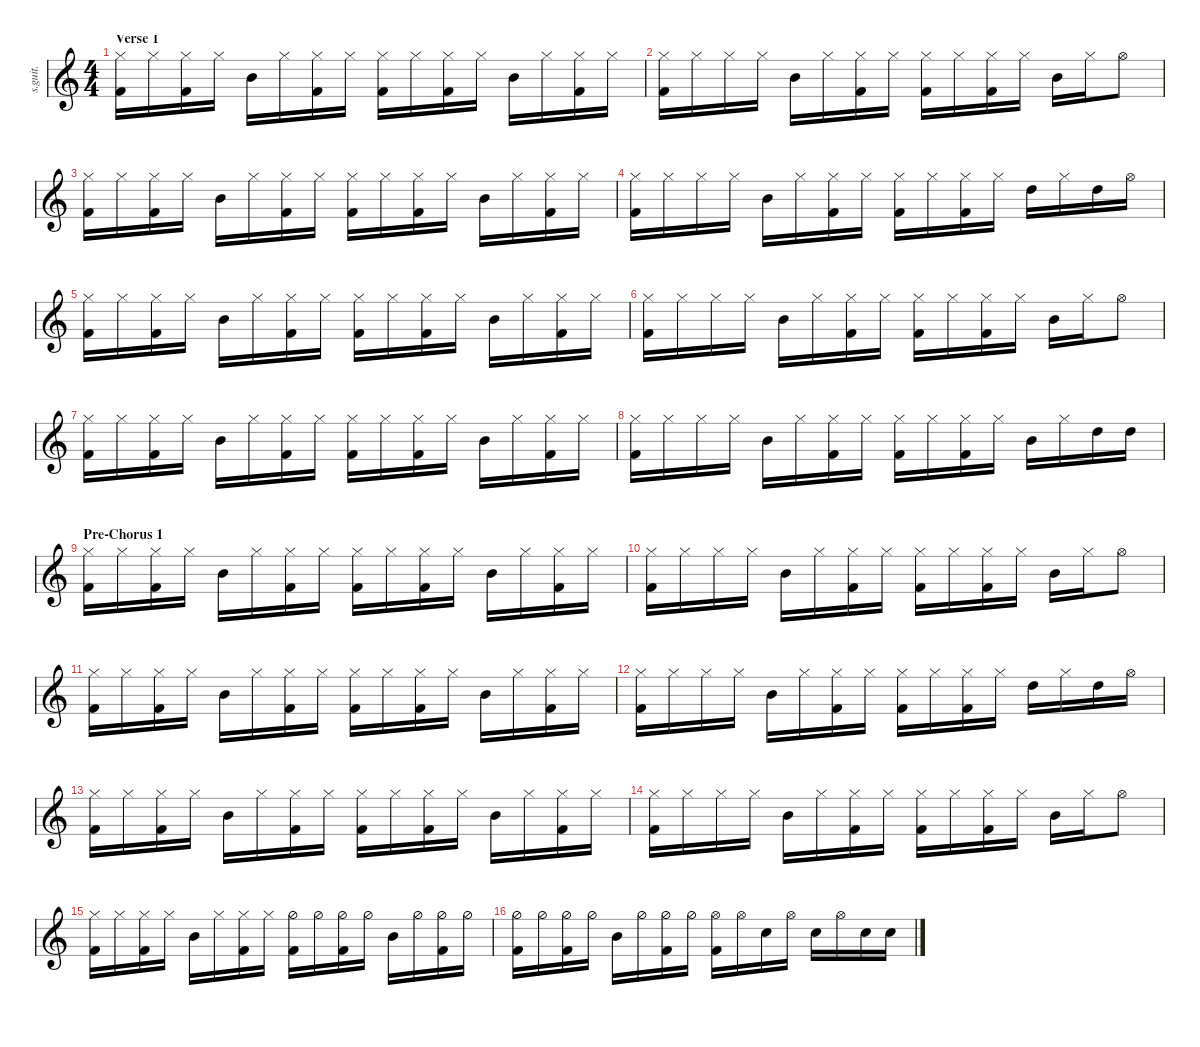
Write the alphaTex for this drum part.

\defaultSystemsLayout 4
\hideDynamics
\bracketExtendMode nobrackets
\track ("Feargal Lawler (Drums)" "s.guit.") {instrument percussion}
\staff {score}
\articulation defaults
\ts (4 4)
\section ("" "Verse 1")
\tempo (82 hide)
\clef g2
\ks c
("Kick (hit) 2" "Hi-Hat (closed)").16{lyrics (0 "") lyrics (1 "") lyrics (2 "") lyrics (3 "") lyrics (4 "") dy ff} "Hi-Hat (closed)".16{lyrics (0 "") lyrics (1 "") lyrics (2 "") lyrics (3 "") lyrics (4 "")} ("Hi-Hat (closed)" "Kick (hit) 2").16{lyrics (0 "") lyrics (1 "") lyrics (2 "") lyrics (3 "") lyrics (4 "")} "Hi-Hat (closed)".16{lyrics (0 "") lyrics (1 "") lyrics (2 "") lyrics (3 "") lyrics (4 "")} "Mid Tom (hit)".16{lyrics (0 "") lyrics (1 "") lyrics (2 "") lyrics (3 "") lyrics (4 "")} "Hi-Hat (closed)".16{lyrics (0 "") lyrics (1 "") lyrics (2 "") lyrics (3 "") lyrics (4 "")} ("Hi-Hat (closed)" "Kick (hit) 2").16{lyrics (0 "") lyrics (1 "") lyrics (2 "") lyrics (3 "") lyrics (4 "")} "Hi-Hat (closed)".16{lyrics (0 "") lyrics (1 "") lyrics (2 "") lyrics (3 "") lyrics (4 "")} ("Hi-Hat (closed)" "Kick (hit) 2").16{lyrics (0 "") lyrics (1 "") lyrics (2 "") lyrics (3 "") lyrics (4 "")} "Hi-Hat (closed)".16{lyrics (0 "") lyrics (1 "") lyrics (2 "") lyrics (3 "") lyrics (4 "")} ("Hi-Hat (closed)" "Kick (hit) 2").16{lyrics (0 "") lyrics (1 "") lyrics (2 "") lyrics (3 "") lyrics (4 "")} "Hi-Hat (closed)".16{lyrics (0 "") lyrics (1 "") lyrics (2 "") lyrics (3 "") lyrics (4 "")} "Mid Tom (hit)".16{lyrics (0 "") lyrics (1 "") lyrics (2 "") lyrics (3 "") lyrics (4 "")} "Hi-Hat (closed)".16{lyrics (0 "") lyrics (1 "") lyrics (2 "") lyrics (3 "") lyrics (4 "")} ("Hi-Hat (closed)" "Kick (hit) 2").16{lyrics (0 "") lyrics (1 "") lyrics (2 "") lyrics (3 "") lyrics (4 "")} "Hi-Hat (closed)".16{lyrics (0 "") lyrics (1 "") lyrics (2 "") lyrics (3 "") lyrics (4 "")} |
("Hi-Hat (closed)" "Kick (hit) 2").16{lyrics (0 "") lyrics (1 "") lyrics (2 "") lyrics (3 "") lyrics (4 "")} "Hi-Hat (closed)".16{lyrics (0 "") lyrics (1 "") lyrics (2 "") lyrics (3 "") lyrics (4 "")} "Hi-Hat (closed)".16{lyrics (0 "") lyrics (1 "") lyrics (2 "") lyrics (3 "") lyrics (4 "")} "Hi-Hat (closed)".16{lyrics (0 "") lyrics (1 "") lyrics (2 "") lyrics (3 "") lyrics (4 "")} "Mid Tom (hit)".16{lyrics (0 "") lyrics (1 "") lyrics (2 "") lyrics (3 "") lyrics (4 "")} "Hi-Hat (closed)".16{lyrics (0 "") lyrics (1 "") lyrics (2 "") lyrics (3 "") lyrics (4 "")} ("Hi-Hat (closed)" "Kick (hit) 2").16{lyrics (0 "") lyrics (1 "") lyrics (2 "") lyrics (3 "") lyrics (4 "")} "Hi-Hat (closed)".16{lyrics (0 "") lyrics (1 "") lyrics (2 "") lyrics (3 "") lyrics (4 "")} ("Hi-Hat (closed)" "Kick (hit) 2").16{lyrics (0 "") lyrics (1 "") lyrics (2 "") lyrics (3 "") lyrics (4 "")} "Hi-Hat (closed)".16{lyrics (0 "") lyrics (1 "") lyrics (2 "") lyrics (3 "") lyrics (4 "")} ("Hi-Hat (closed)" "Kick (hit) 2").16{lyrics (0 "") lyrics (1 "") lyrics (2 "") lyrics (3 "") lyrics (4 "")} "Hi-Hat (closed)".16{lyrics (0 "") lyrics (1 "") lyrics (2 "") lyrics (3 "") lyrics (4 "")} "Mid Tom (hit)".16{lyrics (0 "") lyrics (1 "") lyrics (2 "") lyrics (3 "") lyrics (4 "")} "Hi-Hat (closed)".16{lyrics (0 "") lyrics (1 "") lyrics (2 "") lyrics (3 "") lyrics (4 "")} "Hi-Hat (open)".8{lyrics (0 "") lyrics (1 "") lyrics (2 "") lyrics (3 "") lyrics (4 "")} |
("Hi-Hat (closed)" "Kick (hit) 2").16{lyrics (0 "") lyrics (1 "") lyrics (2 "") lyrics (3 "") lyrics (4 "")} "Hi-Hat (closed)".16{lyrics (0 "") lyrics (1 "") lyrics (2 "") lyrics (3 "") lyrics (4 "")} ("Hi-Hat (closed)" "Kick (hit) 2").16{lyrics (0 "") lyrics (1 "") lyrics (2 "") lyrics (3 "") lyrics (4 "")} "Hi-Hat (closed)".16{lyrics (0 "") lyrics (1 "") lyrics (2 "") lyrics (3 "") lyrics (4 "")} "Mid Tom (hit)".16{lyrics (0 "") lyrics (1 "") lyrics (2 "") lyrics (3 "") lyrics (4 "")} "Hi-Hat (closed)".16{lyrics (0 "") lyrics (1 "") lyrics (2 "") lyrics (3 "") lyrics (4 "")} ("Hi-Hat (closed)" "Kick (hit) 2").16{lyrics (0 "") lyrics (1 "") lyrics (2 "") lyrics (3 "") lyrics (4 "")} "Hi-Hat (closed)".16{lyrics (0 "") lyrics (1 "") lyrics (2 "") lyrics (3 "") lyrics (4 "")} ("Hi-Hat (closed)" "Kick (hit) 2").16{lyrics (0 "") lyrics (1 "") lyrics (2 "") lyrics (3 "") lyrics (4 "")} "Hi-Hat (closed)".16{lyrics (0 "") lyrics (1 "") lyrics (2 "") lyrics (3 "") lyrics (4 "")} ("Hi-Hat (closed)" "Kick (hit) 2").16{lyrics (0 "") lyrics (1 "") lyrics (2 "") lyrics (3 "") lyrics (4 "")} "Hi-Hat (closed)".16{lyrics (0 "") lyrics (1 "") lyrics (2 "") lyrics (3 "") lyrics (4 "")} "Mid Tom (hit)".16{lyrics (0 "") lyrics (1 "") lyrics (2 "") lyrics (3 "") lyrics (4 "")} "Hi-Hat (closed)".16{lyrics (0 "") lyrics (1 "") lyrics (2 "") lyrics (3 "") lyrics (4 "")} ("Hi-Hat (closed)" "Kick (hit) 2").16{lyrics (0 "") lyrics (1 "") lyrics (2 "") lyrics (3 "") lyrics (4 "")} "Hi-Hat (closed)".16{lyrics (0 "") lyrics (1 "") lyrics (2 "") lyrics (3 "") lyrics (4 "")} |
("Hi-Hat (closed)" "Kick (hit) 2").16{lyrics (0 "") lyrics (1 "") lyrics (2 "") lyrics (3 "") lyrics (4 "")} "Hi-Hat (closed)".16{lyrics (0 "") lyrics (1 "") lyrics (2 "") lyrics (3 "") lyrics (4 "")} "Hi-Hat (closed)".16{lyrics (0 "") lyrics (1 "") lyrics (2 "") lyrics (3 "") lyrics (4 "")} "Hi-Hat (closed)".16{lyrics (0 "") lyrics (1 "") lyrics (2 "") lyrics (3 "") lyrics (4 "")} "Mid Tom (hit)".16{lyrics (0 "") lyrics (1 "") lyrics (2 "") lyrics (3 "") lyrics (4 "")} "Hi-Hat (closed)".16{lyrics (0 "") lyrics (1 "") lyrics (2 "") lyrics (3 "") lyrics (4 "")} ("Hi-Hat (closed)" "Kick (hit) 2").16{lyrics (0 "") lyrics (1 "") lyrics (2 "") lyrics (3 "") lyrics (4 "")} "Hi-Hat (closed)".16{lyrics (0 "") lyrics (1 "") lyrics (2 "") lyrics (3 "") lyrics (4 "")} ("Hi-Hat (closed)" "Kick (hit) 2").16{lyrics (0 "") lyrics (1 "") lyrics (2 "") lyrics (3 "") lyrics (4 "")} "Hi-Hat (closed)".16{lyrics (0 "") lyrics (1 "") lyrics (2 "") lyrics (3 "") lyrics (4 "")} ("Hi-Hat (closed)" "Kick (hit) 2").16{lyrics (0 "") lyrics (1 "") lyrics (2 "") lyrics (3 "") lyrics (4 "")} "Hi-Hat (closed)".16{lyrics (0 "") lyrics (1 "") lyrics (2 "") lyrics (3 "") lyrics (4 "")} "High Tom (hit)".16{lyrics (0 "") lyrics (1 "") lyrics (2 "") lyrics (3 "") lyrics (4 "")} "Hi-Hat (closed)".16{lyrics (0 "") lyrics (1 "") lyrics (2 "") lyrics (3 "") lyrics (4 "")} "High Tom (hit)".16{lyrics (0 "") lyrics (1 "") lyrics (2 "") lyrics (3 "") lyrics (4 "")} "Hi-Hat (open)".16{lyrics (0 "") lyrics (1 "") lyrics (2 "") lyrics (3 "") lyrics (4 "")} |
("Kick (hit) 2" "Hi-Hat (closed)").16{lyrics (0 "") lyrics (1 "") lyrics (2 "") lyrics (3 "") lyrics (4 "")} "Hi-Hat (closed)".16{lyrics (0 "") lyrics (1 "") lyrics (2 "") lyrics (3 "") lyrics (4 "")} ("Hi-Hat (closed)" "Kick (hit) 2").16{lyrics (0 "") lyrics (1 "") lyrics (2 "") lyrics (3 "") lyrics (4 "")} "Hi-Hat (closed)".16{lyrics (0 "") lyrics (1 "") lyrics (2 "") lyrics (3 "") lyrics (4 "")} "Mid Tom (hit)".16{lyrics (0 "") lyrics (1 "") lyrics (2 "") lyrics (3 "") lyrics (4 "")} "Hi-Hat (closed)".16{lyrics (0 "") lyrics (1 "") lyrics (2 "") lyrics (3 "") lyrics (4 "")} ("Hi-Hat (closed)" "Kick (hit) 2").16{lyrics (0 "") lyrics (1 "") lyrics (2 "") lyrics (3 "") lyrics (4 "")} "Hi-Hat (closed)".16{lyrics (0 "") lyrics (1 "") lyrics (2 "") lyrics (3 "") lyrics (4 "")} ("Hi-Hat (closed)" "Kick (hit) 2").16{lyrics (0 "") lyrics (1 "") lyrics (2 "") lyrics (3 "") lyrics (4 "")} "Hi-Hat (closed)".16{lyrics (0 "") lyrics (1 "") lyrics (2 "") lyrics (3 "") lyrics (4 "")} ("Hi-Hat (closed)" "Kick (hit) 2").16{lyrics (0 "") lyrics (1 "") lyrics (2 "") lyrics (3 "") lyrics (4 "")} "Hi-Hat (closed)".16{lyrics (0 "") lyrics (1 "") lyrics (2 "") lyrics (3 "") lyrics (4 "")} "Mid Tom (hit)".16{lyrics (0 "") lyrics (1 "") lyrics (2 "") lyrics (3 "") lyrics (4 "")} "Hi-Hat (closed)".16{lyrics (0 "") lyrics (1 "") lyrics (2 "") lyrics (3 "") lyrics (4 "")} ("Hi-Hat (closed)" "Kick (hit) 2").16{lyrics (0 "") lyrics (1 "") lyrics (2 "") lyrics (3 "") lyrics (4 "")} "Hi-Hat (closed)".16{lyrics (0 "") lyrics (1 "") lyrics (2 "") lyrics (3 "") lyrics (4 "")} |
("Hi-Hat (closed)" "Kick (hit) 2").16{lyrics (0 "") lyrics (1 "") lyrics (2 "") lyrics (3 "") lyrics (4 "")} "Hi-Hat (closed)".16{lyrics (0 "") lyrics (1 "") lyrics (2 "") lyrics (3 "") lyrics (4 "")} "Hi-Hat (closed)".16{lyrics (0 "") lyrics (1 "") lyrics (2 "") lyrics (3 "") lyrics (4 "")} "Hi-Hat (closed)".16{lyrics (0 "") lyrics (1 "") lyrics (2 "") lyrics (3 "") lyrics (4 "")} "Mid Tom (hit)".16{lyrics (0 "") lyrics (1 "") lyrics (2 "") lyrics (3 "") lyrics (4 "")} "Hi-Hat (closed)".16{lyrics (0 "") lyrics (1 "") lyrics (2 "") lyrics (3 "") lyrics (4 "")} ("Hi-Hat (closed)" "Kick (hit) 2").16{lyrics (0 "") lyrics (1 "") lyrics (2 "") lyrics (3 "") lyrics (4 "")} "Hi-Hat (closed)".16{lyrics (0 "") lyrics (1 "") lyrics (2 "") lyrics (3 "") lyrics (4 "")} ("Hi-Hat (closed)" "Kick (hit) 2").16{lyrics (0 "") lyrics (1 "") lyrics (2 "") lyrics (3 "") lyrics (4 "")} "Hi-Hat (closed)".16{lyrics (0 "") lyrics (1 "") lyrics (2 "") lyrics (3 "") lyrics (4 "")} ("Hi-Hat (closed)" "Kick (hit) 2").16{lyrics (0 "") lyrics (1 "") lyrics (2 "") lyrics (3 "") lyrics (4 "")} "Hi-Hat (closed)".16{lyrics (0 "") lyrics (1 "") lyrics (2 "") lyrics (3 "") lyrics (4 "")} "Mid Tom (hit)".16{lyrics (0 "") lyrics (1 "") lyrics (2 "") lyrics (3 "") lyrics (4 "")} "Hi-Hat (closed)".16{lyrics (0 "") lyrics (1 "") lyrics (2 "") lyrics (3 "") lyrics (4 "")} "Hi-Hat (open)".8{lyrics (0 "") lyrics (1 "") lyrics (2 "") lyrics (3 "") lyrics (4 "")} |
("Hi-Hat (closed)" "Kick (hit) 2").16{lyrics (0 "") lyrics (1 "") lyrics (2 "") lyrics (3 "") lyrics (4 "")} "Hi-Hat (closed)".16{lyrics (0 "") lyrics (1 "") lyrics (2 "") lyrics (3 "") lyrics (4 "")} ("Hi-Hat (closed)" "Kick (hit) 2").16{lyrics (0 "") lyrics (1 "") lyrics (2 "") lyrics (3 "") lyrics (4 "")} "Hi-Hat (closed)".16{lyrics (0 "") lyrics (1 "") lyrics (2 "") lyrics (3 "") lyrics (4 "")} "Mid Tom (hit)".16{lyrics (0 "") lyrics (1 "") lyrics (2 "") lyrics (3 "") lyrics (4 "")} "Hi-Hat (closed)".16{lyrics (0 "") lyrics (1 "") lyrics (2 "") lyrics (3 "") lyrics (4 "")} ("Hi-Hat (closed)" "Kick (hit) 2").16{lyrics (0 "") lyrics (1 "") lyrics (2 "") lyrics (3 "") lyrics (4 "")} "Hi-Hat (closed)".16{lyrics (0 "") lyrics (1 "") lyrics (2 "") lyrics (3 "") lyrics (4 "")} ("Hi-Hat (closed)" "Kick (hit) 2").16{lyrics (0 "") lyrics (1 "") lyrics (2 "") lyrics (3 "") lyrics (4 "")} "Hi-Hat (closed)".16{lyrics (0 "") lyrics (1 "") lyrics (2 "") lyrics (3 "") lyrics (4 "")} ("Hi-Hat (closed)" "Kick (hit) 2").16{lyrics (0 "") lyrics (1 "") lyrics (2 "") lyrics (3 "") lyrics (4 "")} "Hi-Hat (closed)".16{lyrics (0 "") lyrics (1 "") lyrics (2 "") lyrics (3 "") lyrics (4 "")} "Mid Tom (hit)".16{lyrics (0 "") lyrics (1 "") lyrics (2 "") lyrics (3 "") lyrics (4 "")} "Hi-Hat (closed)".16{lyrics (0 "") lyrics (1 "") lyrics (2 "") lyrics (3 "") lyrics (4 "")} ("Hi-Hat (closed)" "Kick (hit) 2").16{lyrics (0 "") lyrics (1 "") lyrics (2 "") lyrics (3 "") lyrics (4 "")} "Hi-Hat (closed)".16{lyrics (0 "") lyrics (1 "") lyrics (2 "") lyrics (3 "") lyrics (4 "")} |
("Hi-Hat (closed)" "Kick (hit) 2").16{lyrics (0 "") lyrics (1 "") lyrics (2 "") lyrics (3 "") lyrics (4 "")} "Hi-Hat (closed)".16{lyrics (0 "") lyrics (1 "") lyrics (2 "") lyrics (3 "") lyrics (4 "")} "Hi-Hat (closed)".16{lyrics (0 "") lyrics (1 "") lyrics (2 "") lyrics (3 "") lyrics (4 "")} "Hi-Hat (closed)".16{lyrics (0 "") lyrics (1 "") lyrics (2 "") lyrics (3 "") lyrics (4 "")} "Mid Tom (hit)".16{lyrics (0 "") lyrics (1 "") lyrics (2 "") lyrics (3 "") lyrics (4 "")} "Hi-Hat (closed)".16{lyrics (0 "") lyrics (1 "") lyrics (2 "") lyrics (3 "") lyrics (4 "")} ("Hi-Hat (closed)" "Kick (hit) 2").16{lyrics (0 "") lyrics (1 "") lyrics (2 "") lyrics (3 "") lyrics (4 "")} "Hi-Hat (closed)".16{lyrics (0 "") lyrics (1 "") lyrics (2 "") lyrics (3 "") lyrics (4 "")} ("Hi-Hat (closed)" "Kick (hit) 2").16{lyrics (0 "") lyrics (1 "") lyrics (2 "") lyrics (3 "") lyrics (4 "")} "Hi-Hat (closed)".16{lyrics (0 "") lyrics (1 "") lyrics (2 "") lyrics (3 "") lyrics (4 "")} ("Hi-Hat (closed)" "Kick (hit) 2").16{lyrics (0 "") lyrics (1 "") lyrics (2 "") lyrics (3 "") lyrics (4 "")} "Hi-Hat (closed)".16{lyrics (0 "") lyrics (1 "") lyrics (2 "") lyrics (3 "") lyrics (4 "")} "Mid Tom (hit)".16{lyrics (0 "") lyrics (1 "") lyrics (2 "") lyrics (3 "") lyrics (4 "")} "Hi-Hat (closed)".16{lyrics (0 "") lyrics (1 "") lyrics (2 "") lyrics (3 "") lyrics (4 "")} "High Tom (hit)".16{lyrics (0 "") lyrics (1 "") lyrics (2 "") lyrics (3 "") lyrics (4 "")} "High Tom (hit)".16{lyrics (0 "") lyrics (1 "") lyrics (2 "") lyrics (3 "") lyrics (4 "")} |
\section ("" "Pre-Chorus 1")
("Kick (hit) 2" "Hi-Hat (closed)").16{lyrics (0 "") lyrics (1 "") lyrics (2 "") lyrics (3 "") lyrics (4 "")} "Hi-Hat (closed)".16{lyrics (0 "") lyrics (1 "") lyrics (2 "") lyrics (3 "") lyrics (4 "")} ("Hi-Hat (closed)" "Kick (hit) 2").16{lyrics (0 "") lyrics (1 "") lyrics (2 "") lyrics (3 "") lyrics (4 "")} "Hi-Hat (closed)".16{lyrics (0 "") lyrics (1 "") lyrics (2 "") lyrics (3 "") lyrics (4 "")} "Mid Tom (hit)".16{lyrics (0 "") lyrics (1 "") lyrics (2 "") lyrics (3 "") lyrics (4 "")} "Hi-Hat (closed)".16{lyrics (0 "") lyrics (1 "") lyrics (2 "") lyrics (3 "") lyrics (4 "")} ("Kick (hit) 2" "Hi-Hat (closed)").16{lyrics (0 "") lyrics (1 "") lyrics (2 "") lyrics (3 "") lyrics (4 "")} "Hi-Hat (closed)".16{lyrics (0 "") lyrics (1 "") lyrics (2 "") lyrics (3 "") lyrics (4 "")} ("Kick (hit) 2" "Hi-Hat (closed)").16{lyrics (0 "") lyrics (1 "") lyrics (2 "") lyrics (3 "") lyrics (4 "")} "Hi-Hat (closed)".16{lyrics (0 "") lyrics (1 "") lyrics (2 "") lyrics (3 "") lyrics (4 "")} ("Kick (hit) 2" "Hi-Hat (closed)").16{lyrics (0 "") lyrics (1 "") lyrics (2 "") lyrics (3 "") lyrics (4 "")} "Hi-Hat (closed)".16{lyrics (0 "") lyrics (1 "") lyrics (2 "") lyrics (3 "") lyrics (4 "")} "Mid Tom (hit)".16{lyrics (0 "") lyrics (1 "") lyrics (2 "") lyrics (3 "") lyrics (4 "")} "Hi-Hat (closed)".16{lyrics (0 "") lyrics (1 "") lyrics (2 "") lyrics (3 "") lyrics (4 "")} ("Hi-Hat (closed)" "Kick (hit) 2").16{lyrics (0 "") lyrics (1 "") lyrics (2 "") lyrics (3 "") lyrics (4 "")} "Hi-Hat (closed)".16{lyrics (0 "") lyrics (1 "") lyrics (2 "") lyrics (3 "") lyrics (4 "")} |
("Hi-Hat (closed)" "Kick (hit) 2").16{lyrics (0 "") lyrics (1 "") lyrics (2 "") lyrics (3 "") lyrics (4 "")} "Hi-Hat (closed)".16{lyrics (0 "") lyrics (1 "") lyrics (2 "") lyrics (3 "") lyrics (4 "")} "Hi-Hat (closed)".16{lyrics (0 "") lyrics (1 "") lyrics (2 "") lyrics (3 "") lyrics (4 "")} "Hi-Hat (closed)".16{lyrics (0 "") lyrics (1 "") lyrics (2 "") lyrics (3 "") lyrics (4 "")} "Mid Tom (hit)".16{lyrics (0 "") lyrics (1 "") lyrics (2 "") lyrics (3 "") lyrics (4 "")} "Hi-Hat (closed)".16{lyrics (0 "") lyrics (1 "") lyrics (2 "") lyrics (3 "") lyrics (4 "")} ("Kick (hit) 2" "Hi-Hat (closed)").16{lyrics (0 "") lyrics (1 "") lyrics (2 "") lyrics (3 "") lyrics (4 "")} "Hi-Hat (closed)".16{lyrics (0 "") lyrics (1 "") lyrics (2 "") lyrics (3 "") lyrics (4 "")} ("Kick (hit) 2" "Hi-Hat (closed)").16{lyrics (0 "") lyrics (1 "") lyrics (2 "") lyrics (3 "") lyrics (4 "")} "Hi-Hat (closed)".16{lyrics (0 "") lyrics (1 "") lyrics (2 "") lyrics (3 "") lyrics (4 "")} ("Kick (hit) 2" "Hi-Hat (closed)").16{lyrics (0 "") lyrics (1 "") lyrics (2 "") lyrics (3 "") lyrics (4 "")} "Hi-Hat (closed)".16{lyrics (0 "") lyrics (1 "") lyrics (2 "") lyrics (3 "") lyrics (4 "")} "Mid Tom (hit)".16{lyrics (0 "") lyrics (1 "") lyrics (2 "") lyrics (3 "") lyrics (4 "")} "Hi-Hat (closed)".16{lyrics (0 "") lyrics (1 "") lyrics (2 "") lyrics (3 "") lyrics (4 "")} "Hi-Hat (open)".8{lyrics (0 "") lyrics (1 "") lyrics (2 "") lyrics (3 "") lyrics (4 "")} |
("Hi-Hat (closed)" "Kick (hit) 2").16{lyrics (0 "") lyrics (1 "") lyrics (2 "") lyrics (3 "") lyrics (4 "")} "Hi-Hat (closed)".16{lyrics (0 "") lyrics (1 "") lyrics (2 "") lyrics (3 "") lyrics (4 "")} ("Hi-Hat (closed)" "Kick (hit) 2").16{lyrics (0 "") lyrics (1 "") lyrics (2 "") lyrics (3 "") lyrics (4 "")} "Hi-Hat (closed)".16{lyrics (0 "") lyrics (1 "") lyrics (2 "") lyrics (3 "") lyrics (4 "")} "Mid Tom (hit)".16{lyrics (0 "") lyrics (1 "") lyrics (2 "") lyrics (3 "") lyrics (4 "")} "Hi-Hat (closed)".16{lyrics (0 "") lyrics (1 "") lyrics (2 "") lyrics (3 "") lyrics (4 "")} ("Kick (hit) 2" "Hi-Hat (closed)").16{lyrics (0 "") lyrics (1 "") lyrics (2 "") lyrics (3 "") lyrics (4 "")} "Hi-Hat (closed)".16{lyrics (0 "") lyrics (1 "") lyrics (2 "") lyrics (3 "") lyrics (4 "")} ("Kick (hit) 2" "Hi-Hat (closed)").16{lyrics (0 "") lyrics (1 "") lyrics (2 "") lyrics (3 "") lyrics (4 "")} "Hi-Hat (closed)".16{lyrics (0 "") lyrics (1 "") lyrics (2 "") lyrics (3 "") lyrics (4 "")} ("Kick (hit) 2" "Hi-Hat (closed)").16{lyrics (0 "") lyrics (1 "") lyrics (2 "") lyrics (3 "") lyrics (4 "")} "Hi-Hat (closed)".16{lyrics (0 "") lyrics (1 "") lyrics (2 "") lyrics (3 "") lyrics (4 "")} "Mid Tom (hit)".16{lyrics (0 "") lyrics (1 "") lyrics (2 "") lyrics (3 "") lyrics (4 "")} "Hi-Hat (closed)".16{lyrics (0 "") lyrics (1 "") lyrics (2 "") lyrics (3 "") lyrics (4 "")} ("Hi-Hat (closed)" "Kick (hit) 2").16{lyrics (0 "") lyrics (1 "") lyrics (2 "") lyrics (3 "") lyrics (4 "")} "Hi-Hat (closed)".16{lyrics (0 "") lyrics (1 "") lyrics (2 "") lyrics (3 "") lyrics (4 "")} |
("Hi-Hat (closed)" "Kick (hit) 2").16{lyrics (0 "") lyrics (1 "") lyrics (2 "") lyrics (3 "") lyrics (4 "")} "Hi-Hat (closed)".16{lyrics (0 "") lyrics (1 "") lyrics (2 "") lyrics (3 "") lyrics (4 "")} "Hi-Hat (closed)".16{lyrics (0 "") lyrics (1 "") lyrics (2 "") lyrics (3 "") lyrics (4 "")} "Hi-Hat (closed)".16{lyrics (0 "") lyrics (1 "") lyrics (2 "") lyrics (3 "") lyrics (4 "")} "Mid Tom (hit)".16{lyrics (0 "") lyrics (1 "") lyrics (2 "") lyrics (3 "") lyrics (4 "")} "Hi-Hat (closed)".16{lyrics (0 "") lyrics (1 "") lyrics (2 "") lyrics (3 "") lyrics (4 "")} ("Kick (hit) 2" "Hi-Hat (closed)").16{lyrics (0 "") lyrics (1 "") lyrics (2 "") lyrics (3 "") lyrics (4 "")} "Hi-Hat (closed)".16{lyrics (0 "") lyrics (1 "") lyrics (2 "") lyrics (3 "") lyrics (4 "")} ("Kick (hit) 2" "Hi-Hat (closed)").16{lyrics (0 "") lyrics (1 "") lyrics (2 "") lyrics (3 "") lyrics (4 "")} "Hi-Hat (closed)".16{lyrics (0 "") lyrics (1 "") lyrics (2 "") lyrics (3 "") lyrics (4 "")} ("Kick (hit) 2" "Hi-Hat (closed)").16{lyrics (0 "") lyrics (1 "") lyrics (2 "") lyrics (3 "") lyrics (4 "")} "Hi-Hat (closed)".16{lyrics (0 "") lyrics (1 "") lyrics (2 "") lyrics (3 "") lyrics (4 "")} "High Tom (hit)".16{lyrics (0 "") lyrics (1 "") lyrics (2 "") lyrics (3 "") lyrics (4 "")} "Hi-Hat (closed)".16{lyrics (0 "") lyrics (1 "") lyrics (2 "") lyrics (3 "") lyrics (4 "")} "High Tom (hit)".16{lyrics (0 "") lyrics (1 "") lyrics (2 "") lyrics (3 "") lyrics (4 "")} "Hi-Hat (open)".16{lyrics (0 "") lyrics (1 "") lyrics (2 "") lyrics (3 "") lyrics (4 "")} |
("Kick (hit) 2" "Hi-Hat (closed)").16{lyrics (0 "") lyrics (1 "") lyrics (2 "") lyrics (3 "") lyrics (4 "")} "Hi-Hat (closed)".16{lyrics (0 "") lyrics (1 "") lyrics (2 "") lyrics (3 "") lyrics (4 "")} ("Hi-Hat (closed)" "Kick (hit) 2").16{lyrics (0 "") lyrics (1 "") lyrics (2 "") lyrics (3 "") lyrics (4 "")} "Hi-Hat (closed)".16{lyrics (0 "") lyrics (1 "") lyrics (2 "") lyrics (3 "") lyrics (4 "")} "Mid Tom (hit)".16{lyrics (0 "") lyrics (1 "") lyrics (2 "") lyrics (3 "") lyrics (4 "")} "Hi-Hat (closed)".16{lyrics (0 "") lyrics (1 "") lyrics (2 "") lyrics (3 "") lyrics (4 "")} ("Kick (hit) 2" "Hi-Hat (closed)").16{lyrics (0 "") lyrics (1 "") lyrics (2 "") lyrics (3 "") lyrics (4 "")} "Hi-Hat (closed)".16{lyrics (0 "") lyrics (1 "") lyrics (2 "") lyrics (3 "") lyrics (4 "")} ("Kick (hit) 2" "Hi-Hat (closed)").16{lyrics (0 "") lyrics (1 "") lyrics (2 "") lyrics (3 "") lyrics (4 "")} "Hi-Hat (closed)".16{lyrics (0 "") lyrics (1 "") lyrics (2 "") lyrics (3 "") lyrics (4 "")} ("Kick (hit) 2" "Hi-Hat (closed)").16{lyrics (0 "") lyrics (1 "") lyrics (2 "") lyrics (3 "") lyrics (4 "")} "Hi-Hat (closed)".16{lyrics (0 "") lyrics (1 "") lyrics (2 "") lyrics (3 "") lyrics (4 "")} "Mid Tom (hit)".16{lyrics (0 "") lyrics (1 "") lyrics (2 "") lyrics (3 "") lyrics (4 "")} "Hi-Hat (closed)".16{lyrics (0 "") lyrics (1 "") lyrics (2 "") lyrics (3 "") lyrics (4 "")} ("Hi-Hat (closed)" "Kick (hit) 2").16{lyrics (0 "") lyrics (1 "") lyrics (2 "") lyrics (3 "") lyrics (4 "")} "Hi-Hat (closed)".16{lyrics (0 "") lyrics (1 "") lyrics (2 "") lyrics (3 "") lyrics (4 "")} |
("Hi-Hat (closed)" "Kick (hit) 2").16{lyrics (0 "") lyrics (1 "") lyrics (2 "") lyrics (3 "") lyrics (4 "")} "Hi-Hat (closed)".16{lyrics (0 "") lyrics (1 "") lyrics (2 "") lyrics (3 "") lyrics (4 "")} "Hi-Hat (closed)".16{lyrics (0 "") lyrics (1 "") lyrics (2 "") lyrics (3 "") lyrics (4 "")} "Hi-Hat (closed)".16{lyrics (0 "") lyrics (1 "") lyrics (2 "") lyrics (3 "") lyrics (4 "")} "Mid Tom (hit)".16{lyrics (0 "") lyrics (1 "") lyrics (2 "") lyrics (3 "") lyrics (4 "")} "Hi-Hat (closed)".16{lyrics (0 "") lyrics (1 "") lyrics (2 "") lyrics (3 "") lyrics (4 "")} ("Kick (hit) 2" "Hi-Hat (closed)").16{lyrics (0 "") lyrics (1 "") lyrics (2 "") lyrics (3 "") lyrics (4 "")} "Hi-Hat (closed)".16{lyrics (0 "") lyrics (1 "") lyrics (2 "") lyrics (3 "") lyrics (4 "")} ("Kick (hit) 2" "Hi-Hat (closed)").16{lyrics (0 "") lyrics (1 "") lyrics (2 "") lyrics (3 "") lyrics (4 "")} "Hi-Hat (closed)".16{lyrics (0 "") lyrics (1 "") lyrics (2 "") lyrics (3 "") lyrics (4 "")} ("Kick (hit) 2" "Hi-Hat (closed)").16{lyrics (0 "") lyrics (1 "") lyrics (2 "") lyrics (3 "") lyrics (4 "")} "Hi-Hat (closed)".16{lyrics (0 "") lyrics (1 "") lyrics (2 "") lyrics (3 "") lyrics (4 "")} "Mid Tom (hit)".16{lyrics (0 "") lyrics (1 "") lyrics (2 "") lyrics (3 "") lyrics (4 "")} "Hi-Hat (closed)".16{lyrics (0 "") lyrics (1 "") lyrics (2 "") lyrics (3 "") lyrics (4 "")} "Hi-Hat (open)".8{lyrics (0 "") lyrics (1 "") lyrics (2 "") lyrics (3 "") lyrics (4 "")} |
("Hi-Hat (closed)" "Kick (hit) 2").16{lyrics (0 "") lyrics (1 "") lyrics (2 "") lyrics (3 "") lyrics (4 "")} "Hi-Hat (closed)".16{lyrics (0 "") lyrics (1 "") lyrics (2 "") lyrics (3 "") lyrics (4 "")} ("Hi-Hat (closed)" "Kick (hit) 2").16{lyrics (0 "") lyrics (1 "") lyrics (2 "") lyrics (3 "") lyrics (4 "")} "Hi-Hat (closed)".16{lyrics (0 "") lyrics (1 "") lyrics (2 "") lyrics (3 "") lyrics (4 "")} "Mid Tom (hit)".16{lyrics (0 "") lyrics (1 "") lyrics (2 "") lyrics (3 "") lyrics (4 "")} "Hi-Hat (closed)".16{lyrics (0 "") lyrics (1 "") lyrics (2 "") lyrics (3 "") lyrics (4 "")} ("Hi-Hat (closed)" "Kick (hit) 2").16{lyrics (0 "") lyrics (1 "") lyrics (2 "") lyrics (3 "") lyrics (4 "")} "Hi-Hat (closed)".16{lyrics (0 "") lyrics (1 "") lyrics (2 "") lyrics (3 "") lyrics (4 "")} ("Hi-Hat (half)" "Kick (hit) 2").16{lyrics (0 "") lyrics (1 "") lyrics (2 "") lyrics (3 "") lyrics (4 "")} "Hi-Hat (half)".16{lyrics (0 "") lyrics (1 "") lyrics (2 "") lyrics (3 "") lyrics (4 "")} ("Hi-Hat (half)" "Kick (hit) 2").16{lyrics (0 "") lyrics (1 "") lyrics (2 "") lyrics (3 "") lyrics (4 "")} "Hi-Hat (half)".16{lyrics (0 "") lyrics (1 "") lyrics (2 "") lyrics (3 "") lyrics (4 "")} "Mid Tom (hit)".16{lyrics (0 "") lyrics (1 "") lyrics (2 "") lyrics (3 "") lyrics (4 "")} "Hi-Hat (half)".16{lyrics (0 "") lyrics (1 "") lyrics (2 "") lyrics (3 "") lyrics (4 "")} ("Hi-Hat (half)" "Kick (hit) 2").16{lyrics (0 "") lyrics (1 "") lyrics (2 "") lyrics (3 "") lyrics (4 "")} "Hi-Hat (half)".16{lyrics (0 "") lyrics (1 "") lyrics (2 "") lyrics (3 "") lyrics (4 "")} |
("Hi-Hat (half)" "Kick (hit) 2").16{lyrics (0 "") lyrics (1 "") lyrics (2 "") lyrics (3 "") lyrics (4 "")} "Hi-Hat (half)".16{lyrics (0 "") lyrics (1 "") lyrics (2 "") lyrics (3 "") lyrics (4 "")} ("Hi-Hat (half)" "Kick (hit) 2").16{lyrics (0 "") lyrics (1 "") lyrics (2 "") lyrics (3 "") lyrics (4 "")} "Hi-Hat (half)".16{lyrics (0 "") lyrics (1 "") lyrics (2 "") lyrics (3 "") lyrics (4 "")} "Mid Tom (hit)".16{lyrics (0 "") lyrics (1 "") lyrics (2 "") lyrics (3 "") lyrics (4 "")} "Hi-Hat (half)".16{lyrics (0 "") lyrics (1 "") lyrics (2 "") lyrics (3 "") lyrics (4 "")} ("Hi-Hat (half)" "Kick (hit) 2").16{lyrics (0 "") lyrics (1 "") lyrics (2 "") lyrics (3 "") lyrics (4 "")} "Hi-Hat (half)".16{lyrics (0 "") lyrics (1 "") lyrics (2 "") lyrics (3 "") lyrics (4 "")} ("Hi-Hat (open)" "Kick (hit) 2").16{lyrics (0 "") lyrics (1 "") lyrics (2 "") lyrics (3 "") lyrics (4 "")} "Hi-Hat (open)".16{lyrics (0 "") lyrics (1 "") lyrics (2 "") lyrics (3 "") lyrics (4 "")} "Snare (hit) 2".16{lyrics (0 "") lyrics (1 "") lyrics (2 "") lyrics (3 "") lyrics (4 "")} "Hi-Hat (open)".16{lyrics (0 "") lyrics (1 "") lyrics (2 "") lyrics (3 "") lyrics (4 "")} "Snare (hit) 2".16{lyrics (0 "") lyrics (1 "") lyrics (2 "") lyrics (3 "") lyrics (4 "")} "Hi-Hat (open)".16{lyrics (0 "") lyrics (1 "") lyrics (2 "") lyrics (3 "") lyrics (4 "")} "Snare (hit) 2".16{lyrics (0 "") lyrics (1 "") lyrics (2 "") lyrics (3 "") lyrics (4 "")} "Snare (hit) 2".16{lyrics (0 "") lyrics (1 "") lyrics (2 "") lyrics (3 "") lyrics (4 "")}
